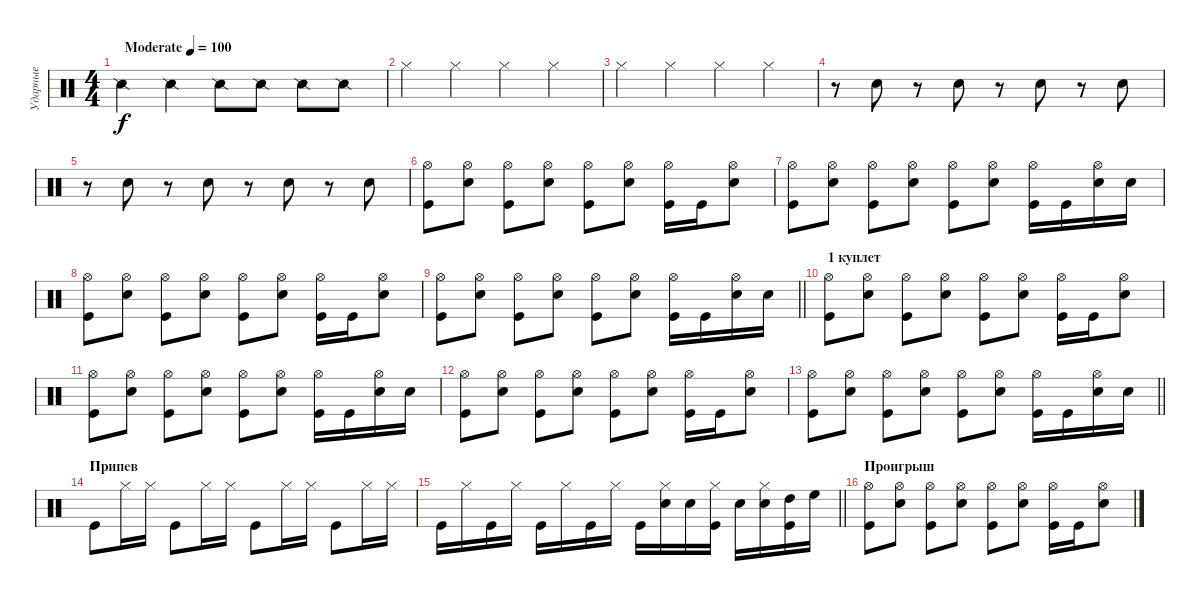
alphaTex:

\track ("Ударные" "Ударные") {instrument percussion}
\staff {score}
\articulation defaults
\ts (4 4)
\tempo (100 "Moderate")
\clef neutral
\ks c "Snare (side stick) 2".4{dy f} "Snare (side stick) 2".4 "Snare (side stick) 2".8 "Snare (side stick) 2".8 "Snare (side stick) 2".8 "Snare (side stick) 2".8
|
"Hi-Hat (closed)".4 "Hi-Hat (closed)".4 "Hi-Hat (closed)".4 "Hi-Hat (closed)".4 |
"Hi-Hat (closed)".4 "Hi-Hat (closed)".4 "Hi-Hat (closed)".4 "Hi-Hat (closed)".4 |
r.8 "Snare (hit) 2".8 r.8 "Snare (hit) 2".8 r.8 "Snare (hit) 2".8 r.8 "Snare (hit) 2".8 |
r.8 "Snare (hit) 2".8 r.8 "Snare (hit) 2".8 r.8 "Snare (hit) 2".8 r.8 "Snare (hit) 2".8 |
("Hi-Hat (open)" "Kick (hit)").8 ("Hi-Hat (open)" "Snare (hit) 2").8 ("Hi-Hat (open)" "Kick (hit)").8 ("Hi-Hat (open)" "Snare (hit) 2").8 ("Hi-Hat (open)" "Kick (hit)").8 ("Hi-Hat (open)" "Snare (hit) 2").8 ("Hi-Hat (open)" "Kick (hit)").16 "Kick (hit)".16 ("Hi-Hat (open)" "Snare (hit) 2").8 |
("Hi-Hat (open)" "Kick (hit)").8 ("Hi-Hat (open)" "Snare (hit) 2").8 ("Hi-Hat (open)" "Kick (hit)").8 ("Hi-Hat (open)" "Snare (hit) 2").8 ("Hi-Hat (open)" "Kick (hit)").8 ("Hi-Hat (open)" "Snare (hit) 2").8 ("Hi-Hat (open)" "Kick (hit)").16 "Kick (hit)".16 ("Hi-Hat (open)" "Snare (hit) 2").16 "Snare (hit) 2".16 |
("Hi-Hat (open)" "Kick (hit)").8 ("Hi-Hat (open)" "Snare (hit) 2").8 ("Hi-Hat (open)" "Kick (hit)").8 ("Hi-Hat (open)" "Snare (hit) 2").8 ("Hi-Hat (open)" "Kick (hit)").8 ("Hi-Hat (open)" "Snare (hit) 2").8 ("Hi-Hat (open)" "Kick (hit)").16 "Kick (hit)".16 ("Hi-Hat (open)" "Snare (hit) 2").8 |
\barLineRight lightlight
("Hi-Hat (open)" "Kick (hit)").8 ("Hi-Hat (open)" "Snare (hit) 2").8 ("Hi-Hat (open)" "Kick (hit)").8 ("Hi-Hat (open)" "Snare (hit) 2").8 ("Hi-Hat (open)" "Kick (hit)").8 ("Hi-Hat (open)" "Snare (hit) 2").8 ("Hi-Hat (open)" "Kick (hit)").16 "Kick (hit)".16 ("Hi-Hat (open)" "Snare (hit) 2").16 "Snare (hit) 2".16 |
\section ("" " 1 куплет")
("Hi-Hat (open)" "Kick (hit)").8 ("Hi-Hat (open)" "Snare (hit) 2").8 ("Hi-Hat (open)" "Kick (hit)").8 ("Hi-Hat (open)" "Snare (hit) 2").8 ("Hi-Hat (open)" "Kick (hit)").8 ("Hi-Hat (open)" "Snare (hit) 2").8 ("Hi-Hat (open)" "Kick (hit)").16 "Kick (hit)".16 ("Hi-Hat (open)" "Snare (hit) 2").8 |
("Hi-Hat (open)" "Kick (hit)").8 ("Hi-Hat (open)" "Snare (hit) 2").8 ("Hi-Hat (open)" "Kick (hit)").8 ("Hi-Hat (open)" "Snare (hit) 2").8 ("Hi-Hat (open)" "Kick (hit)").8 ("Hi-Hat (open)" "Snare (hit) 2").8 ("Hi-Hat (open)" "Kick (hit)").16 "Kick (hit)".16 ("Hi-Hat (open)" "Snare (hit) 2").16 "Snare (hit) 2".16 |
("Hi-Hat (open)" "Kick (hit)").8 ("Hi-Hat (open)" "Snare (hit) 2").8 ("Hi-Hat (open)" "Kick (hit)").8 ("Hi-Hat (open)" "Snare (hit) 2").8 ("Hi-Hat (open)" "Kick (hit)").8 ("Hi-Hat (open)" "Snare (hit) 2").8 ("Hi-Hat (open)" "Kick (hit)").16 "Kick (hit)".16 ("Hi-Hat (open)" "Snare (hit) 2").8 |
\barLineRight lightlight
("Hi-Hat (open)" "Kick (hit)").8 ("Hi-Hat (open)" "Snare (hit) 2").8 ("Hi-Hat (open)" "Kick (hit)").8 ("Hi-Hat (open)" "Snare (hit) 2").8 ("Hi-Hat (open)" "Kick (hit)").8 ("Hi-Hat (open)" "Snare (hit) 2").8 ("Hi-Hat (open)" "Kick (hit)").16 "Kick (hit)".16 ("Hi-Hat (open)" "Snare (hit) 2").16 "Snare (hit) 2".16 |
\section ("" "Припев")
"Kick (hit)".8 "Hi-Hat (closed)".16 "Hi-Hat (closed)".16 "Kick (hit)".8 "Hi-Hat (closed)".16 "Hi-Hat (closed)".16 "Kick (hit)".8 "Hi-Hat (closed)".16 "Hi-Hat (closed)".16 "Kick (hit)".8 "Hi-Hat (closed)".16 "Hi-Hat (closed)".16 |
\barLineRight lightlight "Kick (hit)".16 "Hi-Hat (closed)".16 "Kick (hit)".16 "Hi-Hat (closed)".16 "Kick (hit)".16 "Hi-Hat (closed)".16 "Kick (hit)".16 "Hi-Hat (closed)".16 "Kick (hit)".16
("Hi-Hat (closed)" "Snare (hit) 2").16 "Snare (hit) 2".16 ("Hi-Hat (closed)" "Kick (hit)").16 "Snare (hit) 2".16 ("Hi-Hat (closed)" "Snare (hit) 2").16 ("High Tom (hit)" "Kick (hit)").16 "High Floor Tom (hit)".16 |
\section ("" "Проигрыш")
("Hi-Hat (open)" "Kick (hit)").8 ("Hi-Hat (open)" "Snare (hit) 2").8 ("Hi-Hat (open)" "Kick (hit)").8 ("Hi-Hat (open)" "Snare (hit) 2").8 ("Hi-Hat (open)" "Kick (hit)").8 ("Hi-Hat (open)" "Snare (hit) 2").8 ("Hi-Hat (open)" "Kick (hit)").16 "Kick (hit)".16 ("Hi-Hat (open)" "Snare (hit) 2").8
